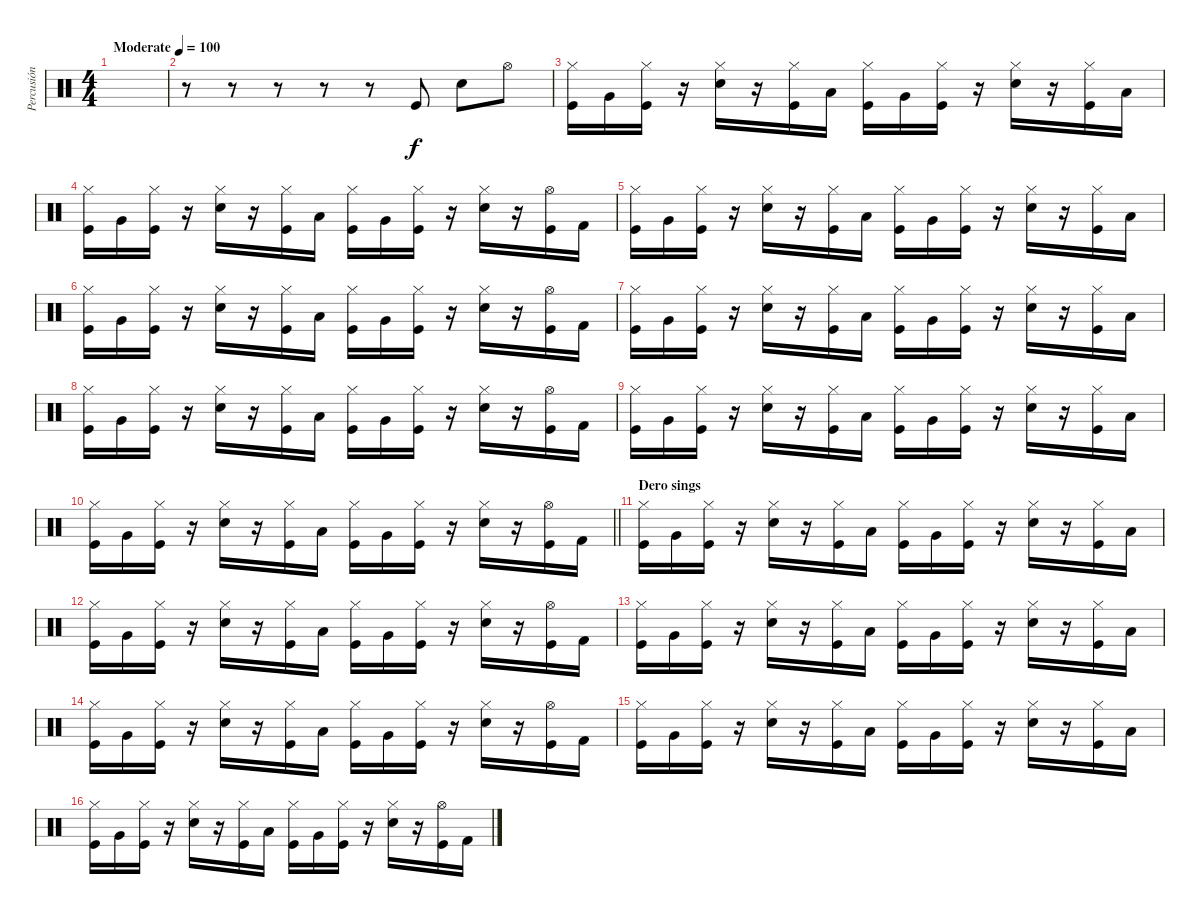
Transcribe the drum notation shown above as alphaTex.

\track ("Percusión" "Percusión") {instrument percussion}
\staff {score}
\articulation defaults
\ts (4 4)
\tempo (100 "Moderate")
\clef neutral
\ks c
|
r.8 r.8 r.8 r.8 r.8 "Kick (hit)".8 "Electric Snare (hit)".8 "Hi-Hat (open)".8 |
("Hi-Hat (closed)" "Kick (hit)").16 "Very Low Tom (hit)".16 ("Hi-Hat (closed)" "Kick (hit)").16 r.16 ("Hi-Hat (closed)" "Electric Snare (hit)").16 r.16 ("Hi-Hat (closed)" "Kick (hit)").16 "Low Tom (hit)".16 ("Hi-Hat (closed)" "Kick (hit)").16 "Very Low Tom (hit)".16 ("Hi-Hat (closed)" "Kick (hit)").16 r.16 ("Hi-Hat (closed)" "Electric Snare (hit)").16 r.16 ("Hi-Hat (closed)" "Kick (hit)").16 "Low Tom (hit)".16 |
("Hi-Hat (closed)" "Kick (hit)").16 "Very Low Tom (hit)".16 ("Hi-Hat (closed)" "Kick (hit)").16 r.16 ("Hi-Hat (closed)" "Electric Snare (hit)").16 r.16 ("Hi-Hat (closed)" "Kick (hit)").16 "Low Tom (hit)".16 ("Hi-Hat (closed)" "Kick (hit)").16 "Very Low Tom (hit)".16 ("Hi-Hat (closed)" "Kick (hit)").16 r.16 ("Hi-Hat (closed)" "Electric Snare (hit)").16 r.16 ("Hi-Hat (open)" "Kick (hit)").16 "Kick (hit) 2".16 |
("Hi-Hat (closed)" "Kick (hit)").16 "Very Low Tom (hit)".16 ("Hi-Hat (closed)" "Kick (hit)").16 r.16 ("Hi-Hat (closed)" "Electric Snare (hit)").16 r.16 ("Hi-Hat (closed)" "Kick (hit)").16 "Low Tom (hit)".16 ("Hi-Hat (closed)" "Kick (hit)").16 "Very Low Tom (hit)".16 ("Hi-Hat (closed)" "Kick (hit)").16 r.16 ("Hi-Hat (closed)" "Electric Snare (hit)").16 r.16 ("Hi-Hat (closed)" "Kick (hit)").16 "Low Tom (hit)".16 |
("Hi-Hat (closed)" "Kick (hit)").16 "Very Low Tom (hit)".16 ("Hi-Hat (closed)" "Kick (hit)").16 r.16 ("Hi-Hat (closed)" "Electric Snare (hit)").16 r.16 ("Hi-Hat (closed)" "Kick (hit)").16 "Low Tom (hit)".16 ("Hi-Hat (closed)" "Kick (hit)").16 "Very Low Tom (hit)".16 ("Hi-Hat (closed)" "Kick (hit)").16 r.16 ("Hi-Hat (closed)" "Electric Snare (hit)").16 r.16 ("Hi-Hat (open)" "Kick (hit)").16 "Kick (hit) 2".16 |
("Hi-Hat (closed)" "Kick (hit)").16 "Very Low Tom (hit)".16 ("Hi-Hat (closed)" "Kick (hit)").16 r.16 ("Hi-Hat (closed)" "Electric Snare (hit)").16 r.16 ("Hi-Hat (closed)" "Kick (hit)").16 "Low Tom (hit)".16 ("Hi-Hat (closed)" "Kick (hit)").16 "Very Low Tom (hit)".16 ("Hi-Hat (closed)" "Kick (hit)").16 r.16 ("Hi-Hat (closed)" "Electric Snare (hit)").16 r.16 ("Hi-Hat (closed)" "Kick (hit)").16 "Low Tom (hit)".16 |
("Hi-Hat (closed)" "Kick (hit)").16 "Very Low Tom (hit)".16 ("Hi-Hat (closed)" "Kick (hit)").16 r.16 ("Hi-Hat (closed)" "Electric Snare (hit)").16 r.16 ("Hi-Hat (closed)" "Kick (hit)").16 "Low Tom (hit)".16 ("Hi-Hat (closed)" "Kick (hit)").16 "Very Low Tom (hit)".16 ("Hi-Hat (closed)" "Kick (hit)").16 r.16 ("Hi-Hat (closed)" "Electric Snare (hit)").16 r.16 ("Hi-Hat (open)" "Kick (hit)").16 "Kick (hit) 2".16 |
("Hi-Hat (closed)" "Kick (hit)").16 "Very Low Tom (hit)".16 ("Hi-Hat (closed)" "Kick (hit)").16 r.16 ("Hi-Hat (closed)" "Electric Snare (hit)").16 r.16 ("Hi-Hat (closed)" "Kick (hit)").16 "Low Tom (hit)".16 ("Hi-Hat (closed)" "Kick (hit)").16 "Very Low Tom (hit)".16 ("Hi-Hat (closed)" "Kick (hit)").16 r.16 ("Hi-Hat (closed)" "Electric Snare (hit)").16 r.16 ("Hi-Hat (closed)" "Kick (hit)").16 "Low Tom (hit)".16 |
\barLineRight lightlight
("Hi-Hat (closed)" "Kick (hit)").16 "Very Low Tom (hit)".16 ("Hi-Hat (closed)" "Kick (hit)").16 r.16 ("Hi-Hat (closed)" "Electric Snare (hit)").16 r.16 ("Hi-Hat (closed)" "Kick (hit)").16 "Low Tom (hit)".16 ("Hi-Hat (closed)" "Kick (hit)").16 "Very Low Tom (hit)".16 ("Hi-Hat (closed)" "Kick (hit)").16 r.16 ("Hi-Hat (closed)" "Electric Snare (hit)").16 r.16 ("Hi-Hat (open)" "Kick (hit)").16 "Kick (hit) 2".16 |
\section ("" "Dero sings")
("Hi-Hat (closed)" "Kick (hit)").16 "Very Low Tom (hit)".16 ("Hi-Hat (closed)" "Kick (hit)").16 r.16 ("Hi-Hat (closed)" "Electric Snare (hit)").16 r.16 ("Hi-Hat (closed)" "Kick (hit)").16 "Low Tom (hit)".16 ("Hi-Hat (closed)" "Kick (hit)").16 "Very Low Tom (hit)".16 ("Hi-Hat (closed)" "Kick (hit)").16 r.16 ("Hi-Hat (closed)" "Electric Snare (hit)").16 r.16 ("Hi-Hat (closed)" "Kick (hit)").16 "Low Tom (hit)".16 |
("Hi-Hat (closed)" "Kick (hit)").16 "Very Low Tom (hit)".16 ("Hi-Hat (closed)" "Kick (hit)").16 r.16 ("Hi-Hat (closed)" "Electric Snare (hit)").16 r.16 ("Hi-Hat (closed)" "Kick (hit)").16 "Low Tom (hit)".16 ("Hi-Hat (closed)" "Kick (hit)").16 "Very Low Tom (hit)".16 ("Hi-Hat (closed)" "Kick (hit)").16 r.16 ("Hi-Hat (closed)" "Electric Snare (hit)").16 r.16 ("Hi-Hat (open)" "Kick (hit)").16 "Kick (hit) 2".16 |
("Hi-Hat (closed)" "Kick (hit)").16 "Very Low Tom (hit)".16 ("Hi-Hat (closed)" "Kick (hit)").16 r.16 ("Hi-Hat (closed)" "Electric Snare (hit)").16 r.16 ("Hi-Hat (closed)" "Kick (hit)").16 "Low Tom (hit)".16 ("Hi-Hat (closed)" "Kick (hit)").16 "Very Low Tom (hit)".16 ("Hi-Hat (closed)" "Kick (hit)").16 r.16 ("Hi-Hat (closed)" "Electric Snare (hit)").16 r.16 ("Hi-Hat (closed)" "Kick (hit)").16 "Low Tom (hit)".16 |
("Hi-Hat (closed)" "Kick (hit)").16 "Very Low Tom (hit)".16 ("Hi-Hat (closed)" "Kick (hit)").16 r.16 ("Hi-Hat (closed)" "Electric Snare (hit)").16 r.16 ("Hi-Hat (closed)" "Kick (hit)").16 "Low Tom (hit)".16 ("Hi-Hat (closed)" "Kick (hit)").16 "Very Low Tom (hit)".16 ("Hi-Hat (closed)" "Kick (hit)").16 r.16 ("Hi-Hat (closed)" "Electric Snare (hit)").16 r.16 ("Hi-Hat (open)" "Kick (hit)").16 "Kick (hit) 2".16 |
("Hi-Hat (closed)" "Kick (hit)").16 "Very Low Tom (hit)".16 ("Hi-Hat (closed)" "Kick (hit)").16 r.16 ("Hi-Hat (closed)" "Electric Snare (hit)").16 r.16 ("Hi-Hat (closed)" "Kick (hit)").16 "Low Tom (hit)".16 ("Hi-Hat (closed)" "Kick (hit)").16 "Very Low Tom (hit)".16 ("Hi-Hat (closed)" "Kick (hit)").16 r.16 ("Hi-Hat (closed)" "Electric Snare (hit)").16 r.16 ("Hi-Hat (closed)" "Kick (hit)").16 "Low Tom (hit)".16 |
("Hi-Hat (closed)" "Kick (hit)").16 "Very Low Tom (hit)".16 ("Hi-Hat (closed)" "Kick (hit)").16 r.16 ("Hi-Hat (closed)" "Electric Snare (hit)").16 r.16 ("Hi-Hat (closed)" "Kick (hit)").16 "Low Tom (hit)".16 ("Hi-Hat (closed)" "Kick (hit)").16 "Very Low Tom (hit)".16 ("Hi-Hat (closed)" "Kick (hit)").16 r.16 ("Hi-Hat (closed)" "Electric Snare (hit)").16 r.16 ("Hi-Hat (open)" "Kick (hit)").16 "Kick (hit) 2".16
